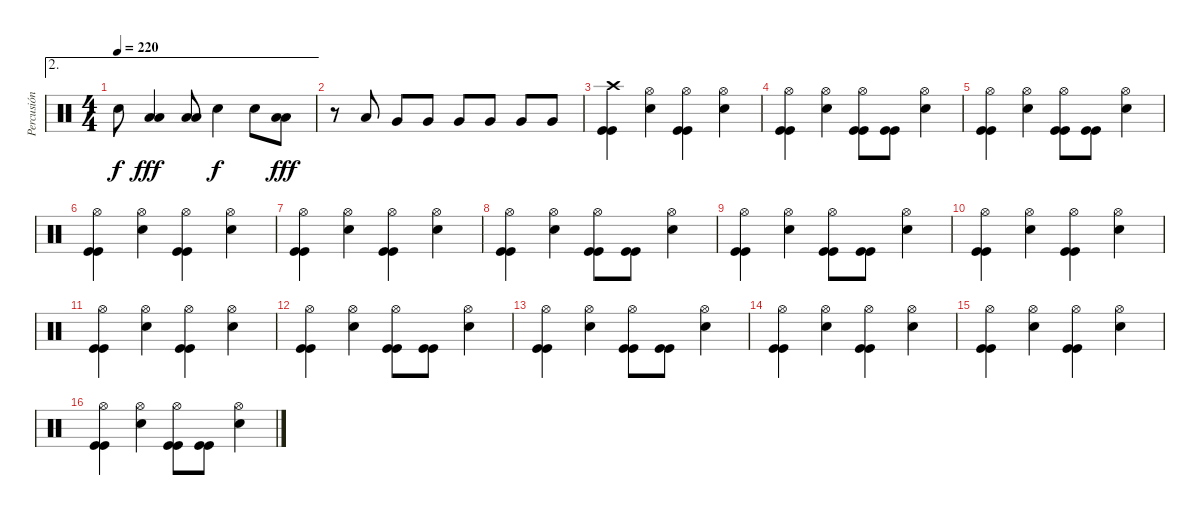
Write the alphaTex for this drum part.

\track ("Percusión" "Percusión") {instrument percussion}
\staff {score}
\articulation defaults
\ae 2
\ts (4 4)
\tempo 220
\clef neutral
\ks c "Snare (hit) 2".8{dy f}
("Low Floor Tom (hit)" "Low Floor Tom (hit)").4{dy fff} ("Low Floor Tom (hit)" "Low Floor Tom (hit)").8 "Snare (hit) 2".4{dy f} "Snare (hit) 2".8 ("Low Floor Tom (hit)" "Low Floor Tom (hit)").8{dy fff} |
r.8 "Low Floor Tom (hit)".8 "Very Low Tom (hit)".8 "Very Low Tom (hit)".8 "Very Low Tom (hit)".8 "Very Low Tom (hit)".8 "Very Low Tom (hit)".8 "Very Low Tom (hit)".8 |
("Crash high (hit)" "Kick (hit)" "Kick (hit)").4 ("Hi-Hat (open)" "Snare (hit) 2").4 ("Hi-Hat (open)" "Kick (hit)" "Kick (hit)").4 ("Hi-Hat (open)" "Snare (hit) 2").4 |
("Hi-Hat (open)" "Kick (hit)" "Kick (hit)").4 ("Hi-Hat (open)" "Snare (hit) 2").4 ("Hi-Hat (open)" "Kick (hit)" "Kick (hit)").8 ("Kick (hit)" "Kick (hit)").8 ("Hi-Hat (open)" "Snare (hit) 2").4 |
("Hi-Hat (open)" "Kick (hit)" "Kick (hit)").4 ("Hi-Hat (open)" "Snare (hit) 2").4 ("Hi-Hat (open)" "Kick (hit)" "Kick (hit)").8 ("Kick (hit)" "Kick (hit)").8 ("Hi-Hat (open)" "Snare (hit) 2").4 |
("Hi-Hat (open)" "Kick (hit)" "Kick (hit)").4 ("Hi-Hat (open)" "Snare (hit) 2").4 ("Hi-Hat (open)" "Kick (hit)" "Kick (hit)").4 ("Hi-Hat (open)" "Snare (hit) 2").4 |
("Hi-Hat (open)" "Kick (hit)" "Kick (hit)").4 ("Hi-Hat (open)" "Snare (hit) 2").4 ("Hi-Hat (open)" "Kick (hit)" "Kick (hit)").4 ("Hi-Hat (open)" "Snare (hit) 2").4 |
("Hi-Hat (open)" "Kick (hit)" "Kick (hit)").4 ("Hi-Hat (open)" "Snare (hit) 2").4 ("Hi-Hat (open)" "Kick (hit)" "Kick (hit)").8 ("Kick (hit)" "Kick (hit)").8 ("Hi-Hat (open)" "Snare (hit) 2").4 |
("Hi-Hat (open)" "Kick (hit)" "Kick (hit)").4 ("Hi-Hat (open)" "Snare (hit) 2").4 ("Hi-Hat (open)" "Kick (hit)" "Kick (hit)").8 ("Kick (hit)" "Kick (hit)").8 ("Hi-Hat (open)" "Snare (hit) 2").4 |
("Hi-Hat (open)" "Kick (hit)" "Kick (hit)").4 ("Hi-Hat (open)" "Snare (hit) 2").4 ("Hi-Hat (open)" "Kick (hit)" "Kick (hit)").4 ("Hi-Hat (open)" "Snare (hit) 2").4 |
("Hi-Hat (open)" "Kick (hit)" "Kick (hit)").4 ("Hi-Hat (open)" "Snare (hit) 2").4 ("Hi-Hat (open)" "Kick (hit)" "Kick (hit)").4 ("Hi-Hat (open)" "Snare (hit) 2").4 |
("Hi-Hat (open)" "Kick (hit)" "Kick (hit)").4 ("Hi-Hat (open)" "Snare (hit) 2").4 ("Hi-Hat (open)" "Kick (hit)" "Kick (hit)").8 ("Kick (hit)" "Kick (hit)").8 ("Hi-Hat (open)" "Snare (hit) 2").4 |
("Hi-Hat (open)" "Kick (hit)" "Kick (hit)").4 ("Hi-Hat (open)" "Snare (hit) 2").4 ("Hi-Hat (open)" "Kick (hit)" "Kick (hit)").8 ("Kick (hit)" "Kick (hit)").8 ("Hi-Hat (open)" "Snare (hit) 2").4 |
("Hi-Hat (open)" "Kick (hit)" "Kick (hit)").4 ("Hi-Hat (open)" "Snare (hit) 2").4 ("Hi-Hat (open)" "Kick (hit)" "Kick (hit)").4 ("Hi-Hat (open)" "Snare (hit) 2").4 |
("Hi-Hat (open)" "Kick (hit)" "Kick (hit)").4 ("Hi-Hat (open)" "Snare (hit) 2").4 ("Hi-Hat (open)" "Kick (hit)" "Kick (hit)").4 ("Hi-Hat (open)" "Snare (hit) 2").4 |
("Hi-Hat (open)" "Kick (hit)" "Kick (hit)").4 ("Hi-Hat (open)" "Snare (hit) 2").4 ("Hi-Hat (open)" "Kick (hit)" "Kick (hit)").8 ("Kick (hit)" "Kick (hit)").8 ("Hi-Hat (open)" "Snare (hit) 2").4
